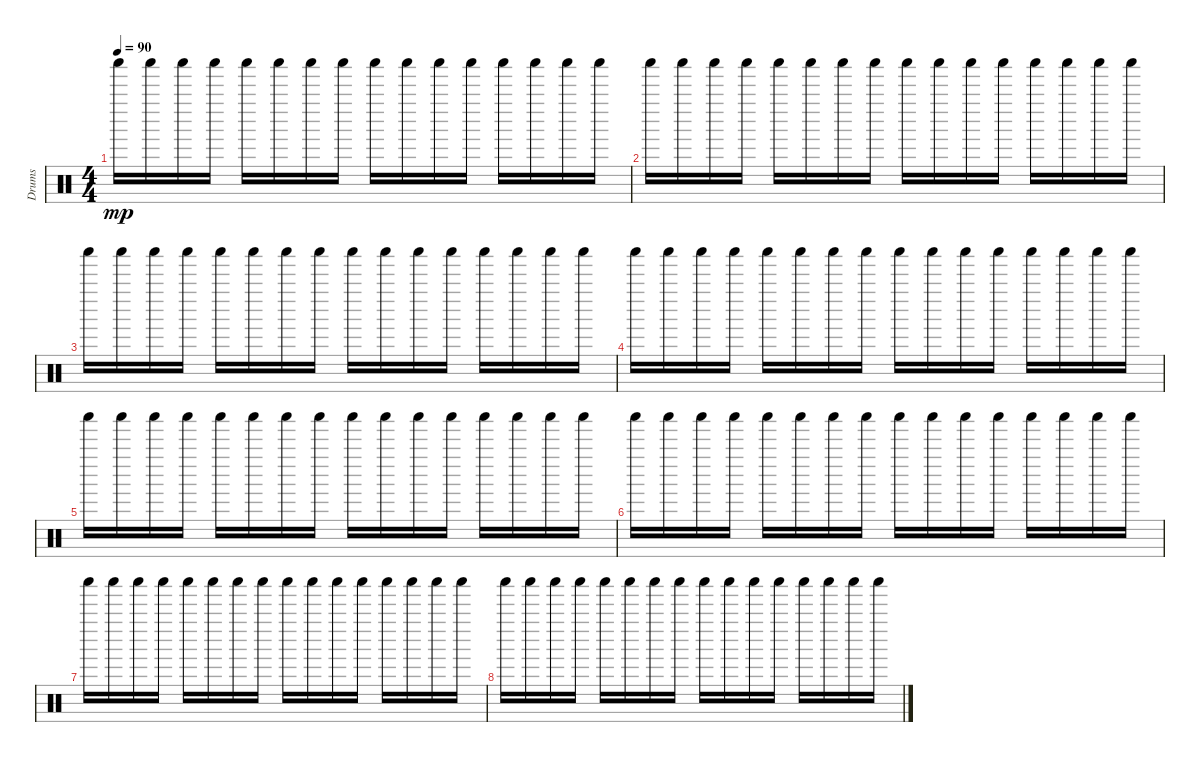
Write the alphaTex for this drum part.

\track ("Drums" "Drums") {instrument percussion}
\staff
\articulation defaults
\ts (4 4)
\tempo 90
\clef neutral
\ks c "Shaker (hit)".16{dy mp} "Shaker (hit)".16 "Shaker (hit)".16 "Shaker (hit)".16 "Shaker (hit)".16 "Shaker (hit)".16 "Shaker (hit)".16 "Shaker (hit)".16 "Shaker (hit)".16 "Shaker (hit)".16 "Shaker (hit)".16 "Shaker (hit)".16 "Shaker (hit)".16 "Shaker (hit)".16 "Shaker (hit)".16 "Shaker (hit)".16
|
"Shaker (hit)".16 "Shaker (hit)".16 "Shaker (hit)".16 "Shaker (hit)".16 "Shaker (hit)".16 "Shaker (hit)".16 "Shaker (hit)".16 "Shaker (hit)".16 "Shaker (hit)".16 "Shaker (hit)".16 "Shaker (hit)".16 "Shaker (hit)".16 "Shaker (hit)".16 "Shaker (hit)".16 "Shaker (hit)".16 "Shaker (hit)".16 |
"Shaker (hit)".16 "Shaker (hit)".16 "Shaker (hit)".16 "Shaker (hit)".16 "Shaker (hit)".16 "Shaker (hit)".16 "Shaker (hit)".16 "Shaker (hit)".16 "Shaker (hit)".16 "Shaker (hit)".16 "Shaker (hit)".16 "Shaker (hit)".16 "Shaker (hit)".16 "Shaker (hit)".16 "Shaker (hit)".16 "Shaker (hit)".16 |
"Shaker (hit)".16 "Shaker (hit)".16 "Shaker (hit)".16 "Shaker (hit)".16 "Shaker (hit)".16 "Shaker (hit)".16 "Shaker (hit)".16 "Shaker (hit)".16 "Shaker (hit)".16 "Shaker (hit)".16 "Shaker (hit)".16 "Shaker (hit)".16 "Shaker (hit)".16 "Shaker (hit)".16 "Shaker (hit)".16 "Shaker (hit)".16 |
"Shaker (hit)".16 "Shaker (hit)".16 "Shaker (hit)".16 "Shaker (hit)".16 "Shaker (hit)".16 "Shaker (hit)".16 "Shaker (hit)".16 "Shaker (hit)".16 "Shaker (hit)".16 "Shaker (hit)".16 "Shaker (hit)".16 "Shaker (hit)".16 "Shaker (hit)".16 "Shaker (hit)".16 "Shaker (hit)".16 "Shaker (hit)".16 |
"Shaker (hit)".16 "Shaker (hit)".16 "Shaker (hit)".16 "Shaker (hit)".16 "Shaker (hit)".16 "Shaker (hit)".16 "Shaker (hit)".16 "Shaker (hit)".16 "Shaker (hit)".16 "Shaker (hit)".16 "Shaker (hit)".16 "Shaker (hit)".16 "Shaker (hit)".16 "Shaker (hit)".16 "Shaker (hit)".16 "Shaker (hit)".16 |
"Shaker (hit)".16 "Shaker (hit)".16 "Shaker (hit)".16 "Shaker (hit)".16 "Shaker (hit)".16 "Shaker (hit)".16 "Shaker (hit)".16 "Shaker (hit)".16 "Shaker (hit)".16 "Shaker (hit)".16 "Shaker (hit)".16 "Shaker (hit)".16 "Shaker (hit)".16 "Shaker (hit)".16 "Shaker (hit)".16 "Shaker (hit)".16 |
"Shaker (hit)".16 "Shaker (hit)".16 "Shaker (hit)".16 "Shaker (hit)".16 "Shaker (hit)".16 "Shaker (hit)".16 "Shaker (hit)".16 "Shaker (hit)".16 "Shaker (hit)".16 "Shaker (hit)".16 "Shaker (hit)".16 "Shaker (hit)".16 "Shaker (hit)".16 "Shaker (hit)".16 "Shaker (hit)".16 "Shaker (hit)".16
